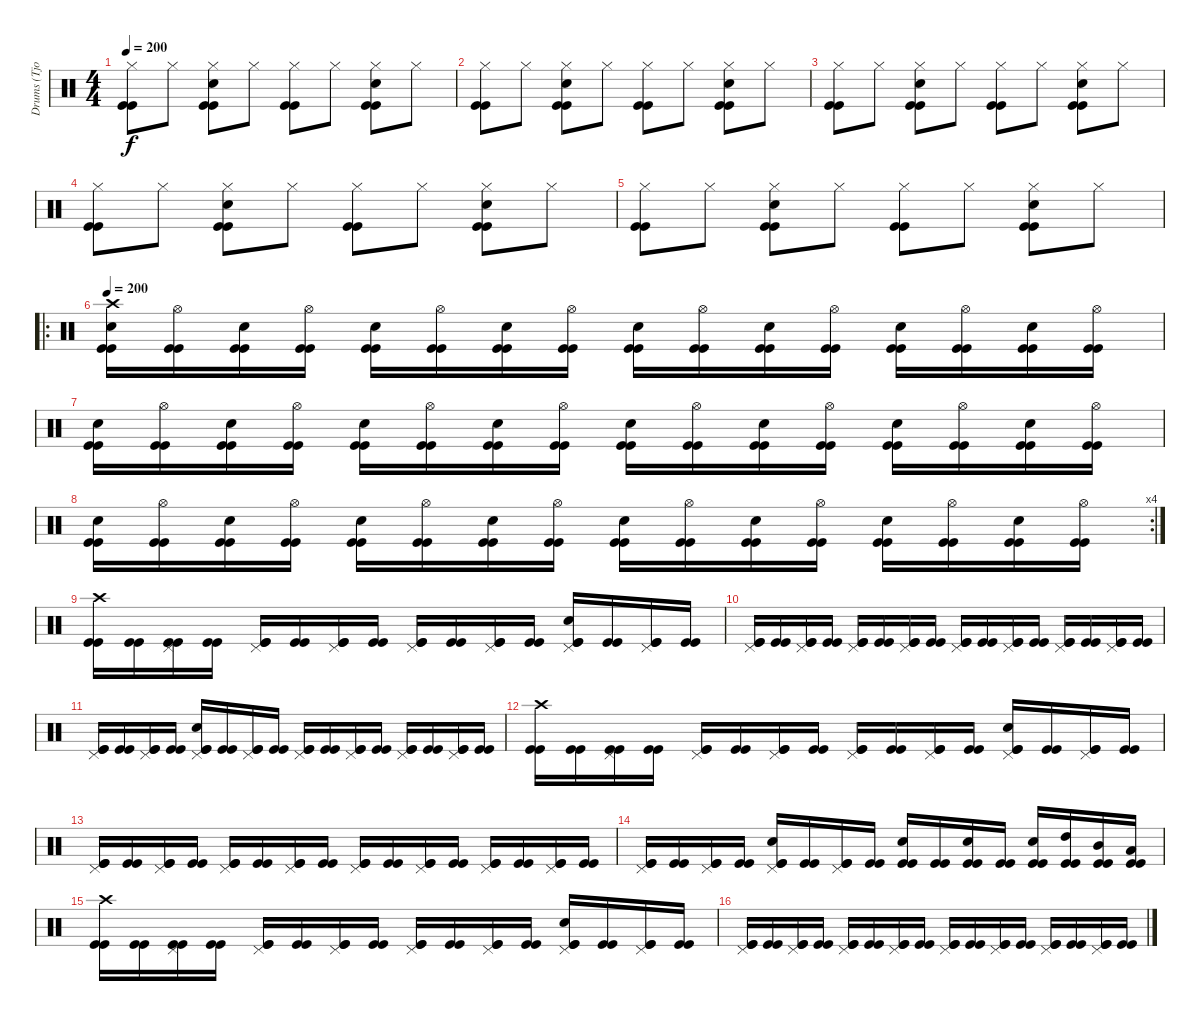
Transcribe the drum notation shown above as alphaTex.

\track ("Drums (Tjodalv)" "Drums (Tjo") {instrument percussion}
\staff {score}
\articulation defaults
\ts (4 4)
\tempo 200
\clef neutral
\ks c
("Hi-Hat (closed)" "Kick (hit)" "Kick (hit)").8{dy f} "Hi-Hat (closed)".8 ("Snare (hit) 2" "Hi-Hat (closed)" "Kick (hit)" "Kick (hit)").8 "Hi-Hat (closed)".8 ("Hi-Hat (closed)" "Kick (hit)" "Kick (hit)").8 "Hi-Hat (closed)".8 ("Snare (hit) 2" "Hi-Hat (closed)" "Kick (hit)" "Kick (hit)").8 "Hi-Hat (closed)".8 |
("Hi-Hat (closed)" "Kick (hit)" "Kick (hit)").8 "Hi-Hat (closed)".8 ("Snare (hit) 2" "Hi-Hat (closed)" "Kick (hit)" "Kick (hit)").8 "Hi-Hat (closed)".8 ("Hi-Hat (closed)" "Kick (hit)" "Kick (hit)").8 "Hi-Hat (closed)".8 ("Snare (hit) 2" "Hi-Hat (closed)" "Kick (hit)" "Kick (hit)").8 "Hi-Hat (closed)".8 |
("Hi-Hat (closed)" "Kick (hit)" "Kick (hit)").8 "Hi-Hat (closed)".8 ("Snare (hit) 2" "Hi-Hat (closed)" "Kick (hit)" "Kick (hit)").8 "Hi-Hat (closed)".8 ("Hi-Hat (closed)" "Kick (hit)" "Kick (hit)").8 "Hi-Hat (closed)".8 ("Snare (hit) 2" "Hi-Hat (closed)" "Kick (hit)" "Kick (hit)").8 "Hi-Hat (closed)".8 |
("Hi-Hat (closed)" "Kick (hit)" "Kick (hit)").8 "Hi-Hat (closed)".8 ("Snare (hit) 2" "Hi-Hat (closed)" "Kick (hit)" "Kick (hit)").8 "Hi-Hat (closed)".8 ("Hi-Hat (closed)" "Kick (hit)" "Kick (hit)").8 "Hi-Hat (closed)".8 ("Snare (hit) 2" "Hi-Hat (closed)" "Kick (hit)" "Kick (hit)").8 "Hi-Hat (closed)".8 |
("Hi-Hat (closed)" "Kick (hit)" "Kick (hit)").8 "Hi-Hat (closed)".8 ("Snare (hit) 2" "Hi-Hat (closed)" "Kick (hit)" "Kick (hit)").8 "Hi-Hat (closed)".8 ("Hi-Hat (closed)" "Kick (hit)" "Kick (hit)").8 "Hi-Hat (closed)".8 ("Snare (hit) 2" "Hi-Hat (closed)" "Kick (hit)" "Kick (hit)").8 "Hi-Hat (closed)".8 |
\ro
\tempo 200
("Crash high (hit)" "Snare (hit) 2" "Kick (hit)" "Kick (hit)").16 ("Hi-Hat (open)" "Kick (hit)" "Kick (hit)").16 ("Snare (hit) 2" "Kick (hit)" "Kick (hit)").16 ("Hi-Hat (open)" "Kick (hit)" "Kick (hit)").16 ("Snare (hit) 2" "Kick (hit)" "Kick (hit)").16 ("Hi-Hat (open)" "Kick (hit)" "Kick (hit)").16 ("Snare (hit) 2" "Kick (hit)" "Kick (hit)").16 ("Hi-Hat (open)" "Kick (hit)" "Kick (hit)").16 ("Snare (hit) 2" "Kick (hit)" "Kick (hit)").16 ("Hi-Hat (open)" "Kick (hit)" "Kick (hit)").16 ("Snare (hit) 2" "Kick (hit)" "Kick (hit)").16 ("Hi-Hat (open)" "Kick (hit)" "Kick (hit)").16 ("Snare (hit) 2" "Kick (hit)" "Kick (hit)").16 ("Hi-Hat (open)" "Kick (hit)" "Kick (hit)").16 ("Snare (hit) 2" "Kick (hit)" "Kick (hit)").16 ("Hi-Hat (open)" "Kick (hit)" "Kick (hit)").16 |
("Snare (hit) 2" "Kick (hit)" "Kick (hit)").16 ("Hi-Hat (open)" "Kick (hit)" "Kick (hit)").16 ("Snare (hit) 2" "Kick (hit)" "Kick (hit)").16 ("Hi-Hat (open)" "Kick (hit)" "Kick (hit)").16 ("Snare (hit) 2" "Kick (hit)" "Kick (hit)").16 ("Hi-Hat (open)" "Kick (hit)" "Kick (hit)").16 ("Snare (hit) 2" "Kick (hit)" "Kick (hit)").16 ("Hi-Hat (open)" "Kick (hit)" "Kick (hit)").16 ("Snare (hit) 2" "Kick (hit)" "Kick (hit)").16 ("Hi-Hat (open)" "Kick (hit)" "Kick (hit)").16 ("Snare (hit) 2" "Kick (hit)" "Kick (hit)").16 ("Hi-Hat (open)" "Kick (hit)" "Kick (hit)").16 ("Snare (hit) 2" "Kick (hit)" "Kick (hit)").16 ("Hi-Hat (open)" "Kick (hit)" "Kick (hit)").16 ("Snare (hit) 2" "Kick (hit)" "Kick (hit)").16 ("Hi-Hat (open)" "Kick (hit)" "Kick (hit)").16 |
\rc 4
("Snare (hit) 2" "Kick (hit)" "Kick (hit)").16 ("Hi-Hat (open)" "Kick (hit)" "Kick (hit)").16 ("Snare (hit) 2" "Kick (hit)" "Kick (hit)").16 ("Hi-Hat (open)" "Kick (hit)" "Kick (hit)").16 ("Snare (hit) 2" "Kick (hit)" "Kick (hit)").16 ("Hi-Hat (open)" "Kick (hit)" "Kick (hit)").16 ("Snare (hit) 2" "Kick (hit)" "Kick (hit)").16 ("Hi-Hat (open)" "Kick (hit)" "Kick (hit)").16 ("Snare (hit) 2" "Kick (hit)" "Kick (hit)").16 ("Hi-Hat (open)" "Kick (hit)" "Kick (hit)").16 ("Snare (hit) 2" "Kick (hit)" "Kick (hit)").16 ("Hi-Hat (open)" "Kick (hit)" "Kick (hit)").16 ("Snare (hit) 2" "Kick (hit)" "Kick (hit)").16 ("Hi-Hat (open)" "Kick (hit)" "Kick (hit)").16 ("Snare (hit) 2" "Kick (hit)" "Kick (hit)").16 ("Hi-Hat (open)" "Kick (hit)" "Kick (hit)").16 |
("Crash high (hit)" "Kick (hit)" "Kick (hit)").16 ("Kick (hit)" "Kick (hit)").16 ("Pedal Hi-Hat (hit)" "Kick (hit)" "Kick (hit)").16 ("Kick (hit)" "Kick (hit)").16 ("Pedal Hi-Hat (hit)" "Kick (hit)" "Kick (hit)").16 ("Kick (hit)" "Kick (hit)").16 ("Pedal Hi-Hat (hit)" "Kick (hit)" "Kick (hit)").16 ("Kick (hit)" "Kick (hit)").16 ("Pedal Hi-Hat (hit)" "Kick (hit)" "Kick (hit)").16 ("Kick (hit)" "Kick (hit)").16 ("Pedal Hi-Hat (hit)" "Kick (hit)" "Kick (hit)").16 ("Kick (hit)" "Kick (hit)").16 ("Snare (hit) 2" "Pedal Hi-Hat (hit)" "Kick (hit)" "Kick (hit)").16 ("Kick (hit)" "Kick (hit)").16 ("Pedal Hi-Hat (hit)" "Kick (hit)" "Kick (hit)").16 ("Kick (hit)" "Kick (hit)").16 |
("Pedal Hi-Hat (hit)" "Kick (hit)" "Kick (hit)").16 ("Kick (hit)" "Kick (hit)").16 ("Pedal Hi-Hat (hit)" "Kick (hit)" "Kick (hit)").16 ("Kick (hit)" "Kick (hit)").16 ("Pedal Hi-Hat (hit)" "Kick (hit)" "Kick (hit)").16 ("Kick (hit)" "Kick (hit)").16 ("Pedal Hi-Hat (hit)" "Kick (hit)" "Kick (hit)").16 ("Kick (hit)" "Kick (hit)").16 ("Pedal Hi-Hat (hit)" "Kick (hit)" "Kick (hit)").16 ("Kick (hit)" "Kick (hit)").16 ("Pedal Hi-Hat (hit)" "Kick (hit)" "Kick (hit)").16 ("Kick (hit)" "Kick (hit)").16 ("Pedal Hi-Hat (hit)" "Kick (hit)" "Kick (hit)").16 ("Kick (hit)" "Kick (hit)").16 ("Pedal Hi-Hat (hit)" "Kick (hit)" "Kick (hit)").16 ("Kick (hit)" "Kick (hit)").16 |
("Pedal Hi-Hat (hit)" "Kick (hit)" "Kick (hit)").16 ("Kick (hit)" "Kick (hit)").16 ("Pedal Hi-Hat (hit)" "Kick (hit)" "Kick (hit)").16 ("Kick (hit)" "Kick (hit)").16 ("Snare (hit) 2" "Pedal Hi-Hat (hit)" "Kick (hit)" "Kick (hit)").16 ("Kick (hit)" "Kick (hit)").16 ("Pedal Hi-Hat (hit)" "Kick (hit)" "Kick (hit)").16 ("Kick (hit)" "Kick (hit)").16 ("Pedal Hi-Hat (hit)" "Kick (hit)" "Kick (hit)").16 ("Kick (hit)" "Kick (hit)").16 ("Pedal Hi-Hat (hit)" "Kick (hit)" "Kick (hit)").16 ("Kick (hit)" "Kick (hit)").16 ("Pedal Hi-Hat (hit)" "Kick (hit)" "Kick (hit)").16 ("Kick (hit)" "Kick (hit)").16 ("Pedal Hi-Hat (hit)" "Kick (hit)" "Kick (hit)").16 ("Kick (hit)" "Kick (hit)").16 |
("Crash high (hit)" "Kick (hit)" "Kick (hit)").16 ("Kick (hit)" "Kick (hit)").16 ("Pedal Hi-Hat (hit)" "Kick (hit)" "Kick (hit)").16 ("Kick (hit)" "Kick (hit)").16 ("Pedal Hi-Hat (hit)" "Kick (hit)" "Kick (hit)").16 ("Kick (hit)" "Kick (hit)").16 ("Pedal Hi-Hat (hit)" "Kick (hit)" "Kick (hit)").16 ("Kick (hit)" "Kick (hit)").16 ("Pedal Hi-Hat (hit)" "Kick (hit)" "Kick (hit)").16 ("Kick (hit)" "Kick (hit)").16 ("Pedal Hi-Hat (hit)" "Kick (hit)" "Kick (hit)").16 ("Kick (hit)" "Kick (hit)").16 ("Snare (hit) 2" "Pedal Hi-Hat (hit)" "Kick (hit)" "Kick (hit)").16 ("Kick (hit)" "Kick (hit)").16 ("Pedal Hi-Hat (hit)" "Kick (hit)" "Kick (hit)").16 ("Kick (hit)" "Kick (hit)").16 |
("Pedal Hi-Hat (hit)" "Kick (hit)" "Kick (hit)").16 ("Kick (hit)" "Kick (hit)").16 ("Pedal Hi-Hat (hit)" "Kick (hit)" "Kick (hit)").16 ("Kick (hit)" "Kick (hit)").16 ("Pedal Hi-Hat (hit)" "Kick (hit)" "Kick (hit)").16 ("Kick (hit)" "Kick (hit)").16 ("Pedal Hi-Hat (hit)" "Kick (hit)" "Kick (hit)").16 ("Kick (hit)" "Kick (hit)").16 ("Pedal Hi-Hat (hit)" "Kick (hit)" "Kick (hit)").16 ("Kick (hit)" "Kick (hit)").16 ("Pedal Hi-Hat (hit)" "Kick (hit)" "Kick (hit)").16 ("Kick (hit)" "Kick (hit)").16 ("Pedal Hi-Hat (hit)" "Kick (hit)" "Kick (hit)").16 ("Kick (hit)" "Kick (hit)").16 ("Pedal Hi-Hat (hit)" "Kick (hit)" "Kick (hit)").16 ("Kick (hit)" "Kick (hit)").16 |
("Pedal Hi-Hat (hit)" "Kick (hit)" "Kick (hit)").16 ("Kick (hit)" "Kick (hit)").16 ("Pedal Hi-Hat (hit)" "Kick (hit)" "Kick (hit)").16 ("Kick (hit)" "Kick (hit)").16 ("Snare (hit) 2" "Pedal Hi-Hat (hit)" "Kick (hit)" "Kick (hit)").16 ("Kick (hit)" "Kick (hit)").16 ("Pedal Hi-Hat (hit)" "Kick (hit)" "Kick (hit)").16 ("Kick (hit)" "Kick (hit)").16 ("Snare (hit) 2" "Kick (hit)" "Kick (hit)").16 ("Kick (hit)" "Kick (hit)").16 ("Snare (hit) 2" "Kick (hit)" "Kick (hit)").16 ("Kick (hit)" "Kick (hit)").16 ("Snare (hit) 2" "Kick (hit)" "Kick (hit)").16 ("High Tom (hit)" "Kick (hit)" "Kick (hit)").16 ("Mid Tom (hit)" "Kick (hit)" "Kick (hit)").16 ("Low Tom (hit)" "Kick (hit)" "Kick (hit)").16 |
("Crash high (hit)" "Kick (hit)" "Kick (hit)").16 ("Kick (hit)" "Kick (hit)").16 ("Pedal Hi-Hat (hit)" "Kick (hit)" "Kick (hit)").16 ("Kick (hit)" "Kick (hit)").16 ("Pedal Hi-Hat (hit)" "Kick (hit)" "Kick (hit)").16 ("Kick (hit)" "Kick (hit)").16 ("Pedal Hi-Hat (hit)" "Kick (hit)" "Kick (hit)").16 ("Kick (hit)" "Kick (hit)").16 ("Pedal Hi-Hat (hit)" "Kick (hit)" "Kick (hit)").16 ("Kick (hit)" "Kick (hit)").16 ("Pedal Hi-Hat (hit)" "Kick (hit)" "Kick (hit)").16 ("Kick (hit)" "Kick (hit)").16 ("Snare (hit) 2" "Pedal Hi-Hat (hit)" "Kick (hit)" "Kick (hit)").16 ("Kick (hit)" "Kick (hit)").16 ("Pedal Hi-Hat (hit)" "Kick (hit)" "Kick (hit)").16 ("Kick (hit)" "Kick (hit)").16 |
("Pedal Hi-Hat (hit)" "Kick (hit)" "Kick (hit)").16 ("Kick (hit)" "Kick (hit)").16 ("Pedal Hi-Hat (hit)" "Kick (hit)" "Kick (hit)").16 ("Kick (hit)" "Kick (hit)").16 ("Pedal Hi-Hat (hit)" "Kick (hit)" "Kick (hit)").16 ("Kick (hit)" "Kick (hit)").16 ("Pedal Hi-Hat (hit)" "Kick (hit)" "Kick (hit)").16 ("Kick (hit)" "Kick (hit)").16 ("Pedal Hi-Hat (hit)" "Kick (hit)" "Kick (hit)").16 ("Kick (hit)" "Kick (hit)").16 ("Pedal Hi-Hat (hit)" "Kick (hit)" "Kick (hit)").16 ("Kick (hit)" "Kick (hit)").16 ("Pedal Hi-Hat (hit)" "Kick (hit)" "Kick (hit)").16 ("Kick (hit)" "Kick (hit)").16 ("Pedal Hi-Hat (hit)" "Kick (hit)" "Kick (hit)").16 ("Kick (hit)" "Kick (hit)").16
